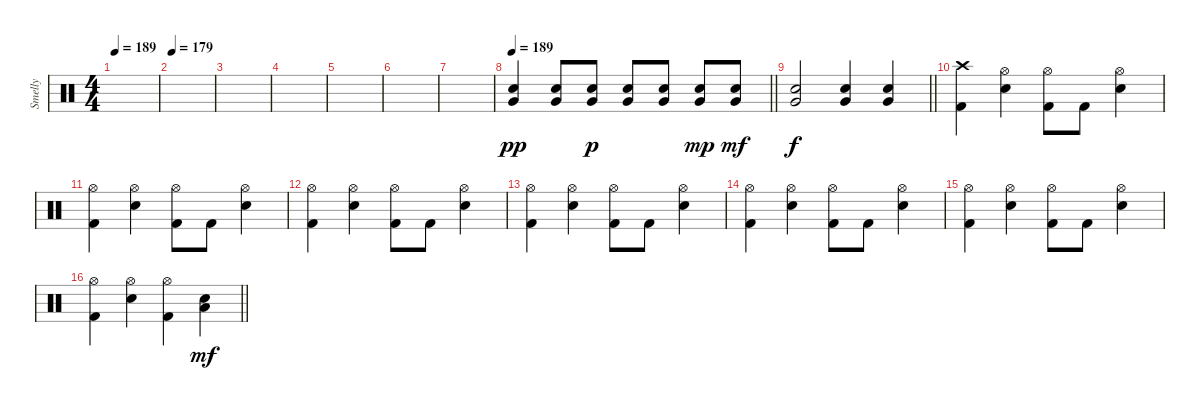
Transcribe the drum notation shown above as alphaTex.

\track ("Smelly" "Smelly") {instrument percussion}
\staff {score}
\articulation defaults
\ts (4 4)
\tempo 189
\clef neutral
\ks c
|
\tempo 179
|
|
|
|
|
|
\tempo 189
\barLineRight lightlight
("Electric Snare (hit)" "Very Low Tom (hit)").4{dy pp} ("Electric Snare (hit)" "Very Low Tom (hit)").8 ("Electric Snare (hit)" "Very Low Tom (hit)").8{dy p} ("Electric Snare (hit)" "Very Low Tom (hit)").8 ("Electric Snare (hit)" "Very Low Tom (hit)").8 ("Electric Snare (hit)" "Very Low Tom (hit)").8{dy mp} ("Electric Snare (hit)" "Very Low Tom (hit)").8{dy mf} |
\barLineRight lightlight
("Electric Snare (hit)" "Very Low Tom (hit)").2{dy f} ("Electric Snare (hit)" "Very Low Tom (hit)").4 ("Electric Snare (hit)" "Very Low Tom (hit)").4 |
\section ("" "")
("Crash high (hit)" "Kick (hit) 2").4 ("Hi-Hat (open)" "Electric Snare (hit)").4 ("Hi-Hat (open)" "Kick (hit) 2").8 "Kick (hit) 2".8 ("Hi-Hat (open)" "Electric Snare (hit)").4 |
("Hi-Hat (open)" "Kick (hit) 2").4 ("Hi-Hat (open)" "Electric Snare (hit)").4 ("Hi-Hat (open)" "Kick (hit) 2").8 "Kick (hit) 2".8 ("Hi-Hat (open)" "Electric Snare (hit)").4 |
("Hi-Hat (open)" "Kick (hit) 2").4 ("Hi-Hat (open)" "Electric Snare (hit)").4 ("Hi-Hat (open)" "Kick (hit) 2").8 "Kick (hit) 2".8 ("Hi-Hat (open)" "Electric Snare (hit)").4 |
("Hi-Hat (open)" "Kick (hit) 2").4 ("Hi-Hat (open)" "Electric Snare (hit)").4 ("Hi-Hat (open)" "Kick (hit) 2").8 "Kick (hit) 2".8 ("Hi-Hat (open)" "Electric Snare (hit)").4 |
("Hi-Hat (open)" "Kick (hit) 2").4 ("Hi-Hat (open)" "Electric Snare (hit)").4 ("Hi-Hat (open)" "Kick (hit) 2").8 "Kick (hit) 2".8 ("Hi-Hat (open)" "Electric Snare (hit)").4 |
("Hi-Hat (open)" "Kick (hit) 2").4 ("Hi-Hat (open)" "Electric Snare (hit)").4 ("Hi-Hat (open)" "Kick (hit) 2").8 "Kick (hit) 2".8 ("Hi-Hat (open)" "Electric Snare (hit)").4 |
\barLineRight lightlight
("Hi-Hat (open)" "Kick (hit) 2").4 ("Hi-Hat (open)" "Electric Snare (hit)").4 ("Hi-Hat (open)" "Kick (hit) 2").4 ("Electric Snare (hit)" "Low Floor Tom (hit)").4{dy mf}
